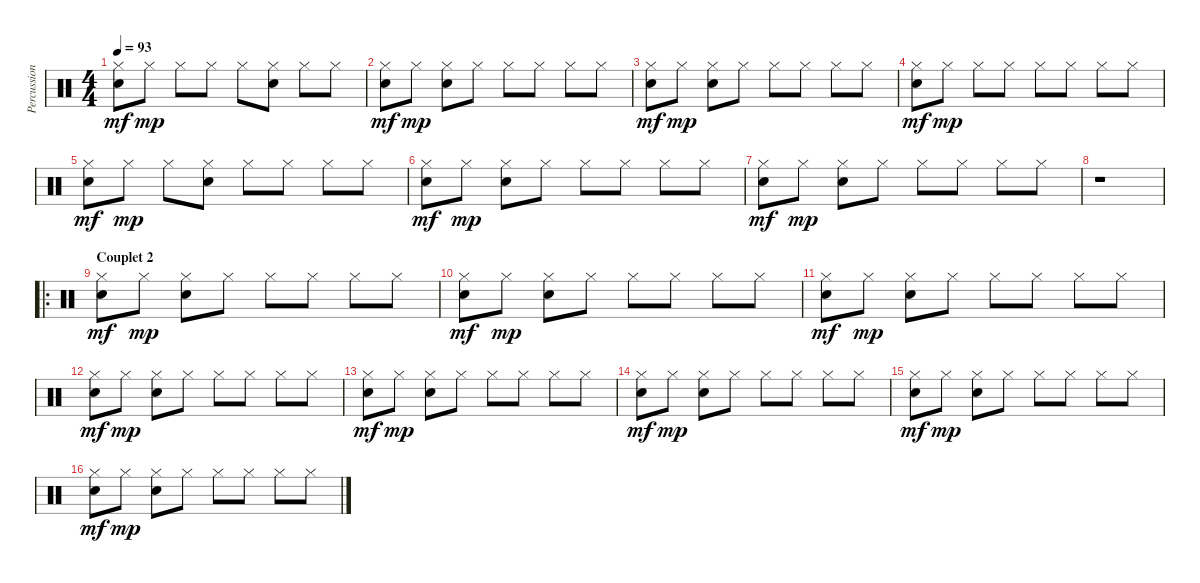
\track ("Percussions" "Percussion") {instrument percussion}
\staff {score}
\articulation defaults
\ts (4 4)
\tempo 93
\clef neutral
\ks c
("Hi-Hat (closed)" "Electric Snare (hit)").8{dy mf} "Hi-Hat (closed)".8{dy mp} "Hi-Hat (closed)".8 "Hi-Hat (closed)".8 "Hi-Hat (closed)".8 ("Hi-Hat (closed)" "Electric Snare (hit)").8 "Hi-Hat (closed)".8 "Hi-Hat (closed)".8 |
("Hi-Hat (closed)" "Electric Snare (hit)").8{dy mf} "Hi-Hat (closed)".8{dy mp} ("Hi-Hat (closed)" "Electric Snare (hit)").8 "Hi-Hat (closed)".8 "Hi-Hat (closed)".8 "Hi-Hat (closed)".8 "Hi-Hat (closed)".8 "Hi-Hat (closed)".8 |
("Hi-Hat (closed)" "Electric Snare (hit)").8{dy mf} "Hi-Hat (closed)".8{dy mp} ("Hi-Hat (closed)" "Electric Snare (hit)").8 "Hi-Hat (closed)".8 "Hi-Hat (closed)".8 "Hi-Hat (closed)".8 "Hi-Hat (closed)".8 "Hi-Hat (closed)".8 |
("Hi-Hat (closed)" "Electric Snare (hit)").8{dy mf} "Hi-Hat (closed)".8{dy mp} "Hi-Hat (closed)".8 "Hi-Hat (closed)".8 "Hi-Hat (closed)".8 "Hi-Hat (closed)".8 "Hi-Hat (closed)".8 "Hi-Hat (closed)".8 |
("Hi-Hat (closed)" "Electric Snare (hit)").8{dy mf} "Hi-Hat (closed)".8{dy mp} "Hi-Hat (closed)".8 ("Hi-Hat (closed)" "Electric Snare (hit)").8 "Hi-Hat (closed)".8 "Hi-Hat (closed)".8 "Hi-Hat (closed)".8 "Hi-Hat (closed)".8 |
("Hi-Hat (closed)" "Electric Snare (hit)").8{dy mf} "Hi-Hat (closed)".8{dy mp} ("Hi-Hat (closed)" "Electric Snare (hit)").8 "Hi-Hat (closed)".8 "Hi-Hat (closed)".8 "Hi-Hat (closed)".8 "Hi-Hat (closed)".8 "Hi-Hat (closed)".8 |
("Hi-Hat (closed)" "Electric Snare (hit)").8{dy mf} "Hi-Hat (closed)".8{dy mp} ("Hi-Hat (closed)" "Electric Snare (hit)").8 "Hi-Hat (closed)".8 "Hi-Hat (closed)".8 "Hi-Hat (closed)".8 "Hi-Hat (closed)".8 "Hi-Hat (closed)".8 |
r.1 |
\ro
\section ("" "Couplet 2")
("Hi-Hat (closed)" "Electric Snare (hit)").8{dy mf} "Hi-Hat (closed)".8{dy mp} ("Hi-Hat (closed)" "Electric Snare (hit)").8 "Hi-Hat (closed)".8 "Hi-Hat (closed)".8 "Hi-Hat (closed)".8 "Hi-Hat (closed)".8 "Hi-Hat (closed)".8 |
("Hi-Hat (closed)" "Electric Snare (hit)").8{dy mf} "Hi-Hat (closed)".8{dy mp} ("Hi-Hat (closed)" "Electric Snare (hit)").8 "Hi-Hat (closed)".8 "Hi-Hat (closed)".8 "Hi-Hat (closed)".8 "Hi-Hat (closed)".8 "Hi-Hat (closed)".8 |
("Hi-Hat (closed)" "Electric Snare (hit)").8{dy mf} "Hi-Hat (closed)".8{dy mp} ("Hi-Hat (closed)" "Electric Snare (hit)").8 "Hi-Hat (closed)".8 "Hi-Hat (closed)".8 "Hi-Hat (closed)".8 "Hi-Hat (closed)".8 "Hi-Hat (closed)".8 |
("Hi-Hat (closed)" "Electric Snare (hit)").8{dy mf} "Hi-Hat (closed)".8{dy mp} ("Hi-Hat (closed)" "Electric Snare (hit)").8 "Hi-Hat (closed)".8 "Hi-Hat (closed)".8 "Hi-Hat (closed)".8 "Hi-Hat (closed)".8 "Hi-Hat (closed)".8 |
("Hi-Hat (closed)" "Electric Snare (hit)").8{dy mf} "Hi-Hat (closed)".8{dy mp} ("Hi-Hat (closed)" "Electric Snare (hit)").8 "Hi-Hat (closed)".8 "Hi-Hat (closed)".8 "Hi-Hat (closed)".8 "Hi-Hat (closed)".8 "Hi-Hat (closed)".8 |
("Hi-Hat (closed)" "Electric Snare (hit)").8{dy mf} "Hi-Hat (closed)".8{dy mp} ("Hi-Hat (closed)" "Electric Snare (hit)").8 "Hi-Hat (closed)".8 "Hi-Hat (closed)".8 "Hi-Hat (closed)".8 "Hi-Hat (closed)".8 "Hi-Hat (closed)".8 |
("Hi-Hat (closed)" "Electric Snare (hit)").8{dy mf} "Hi-Hat (closed)".8{dy mp} ("Hi-Hat (closed)" "Electric Snare (hit)").8 "Hi-Hat (closed)".8 "Hi-Hat (closed)".8 "Hi-Hat (closed)".8 "Hi-Hat (closed)".8 "Hi-Hat (closed)".8 |
("Hi-Hat (closed)" "Electric Snare (hit)").8{dy mf} "Hi-Hat (closed)".8{dy mp} ("Hi-Hat (closed)" "Electric Snare (hit)").8 "Hi-Hat (closed)".8 "Hi-Hat (closed)".8 "Hi-Hat (closed)".8 "Hi-Hat (closed)".8 "Hi-Hat (closed)".8
